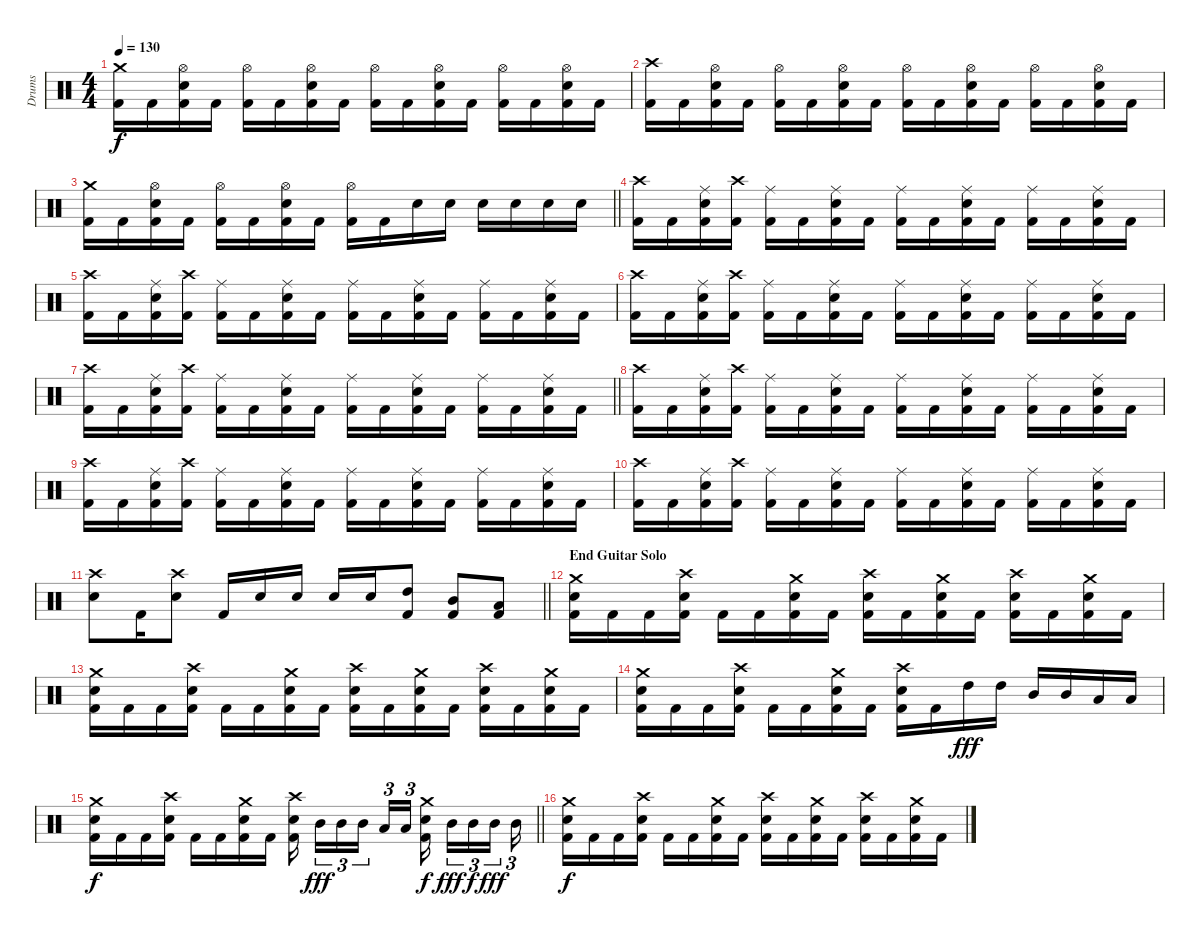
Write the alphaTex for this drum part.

\track ("Drums" "Drums") {instrument percussion}
\staff {score}
\articulation defaults
\ts (4 4)
\tempo 130
\clef neutral
\ks c
("Crash medium (hit)" "Kick (hit) 2").16{dy f} "Kick (hit) 2".16 ("Snare (hit) 2" "Hi-Hat (open)" "Kick (hit) 2").16 "Kick (hit) 2".16 ("Hi-Hat (open)" "Kick (hit) 2").16 "Kick (hit) 2".16 ("Snare (hit) 2" "Hi-Hat (open)" "Kick (hit) 2").16 "Kick (hit) 2".16 ("Hi-Hat (open)" "Kick (hit) 2").16 "Kick (hit) 2".16 ("Snare (hit) 2" "Hi-Hat (open)" "Kick (hit) 2").16 "Kick (hit) 2".16 ("Hi-Hat (open)" "Kick (hit) 2").16 "Kick (hit) 2".16 ("Snare (hit) 2" "Hi-Hat (open)" "Kick (hit) 2").16 "Kick (hit) 2".16 |
("Crash high (hit)" "Kick (hit) 2").16 "Kick (hit) 2".16 ("Snare (hit) 2" "Hi-Hat (open)" "Kick (hit) 2").16 "Kick (hit) 2".16 ("Hi-Hat (open)" "Kick (hit) 2").16 "Kick (hit) 2".16 ("Snare (hit) 2" "Hi-Hat (open)" "Kick (hit) 2").16 "Kick (hit) 2".16 ("Hi-Hat (open)" "Kick (hit) 2").16 "Kick (hit) 2".16 ("Snare (hit) 2" "Hi-Hat (open)" "Kick (hit) 2").16 "Kick (hit) 2".16 ("Hi-Hat (open)" "Kick (hit) 2").16 "Kick (hit) 2".16 ("Snare (hit) 2" "Hi-Hat (open)" "Kick (hit) 2").16 "Kick (hit) 2".16 |
\barLineRight lightlight
("Crash medium (hit)" "Kick (hit) 2").16 "Kick (hit) 2".16 ("Snare (hit) 2" "Hi-Hat (open)" "Kick (hit) 2").16 "Kick (hit) 2".16 ("Hi-Hat (open)" "Kick (hit) 2").16 "Kick (hit) 2".16 ("Snare (hit) 2" "Hi-Hat (open)" "Kick (hit) 2").16 "Kick (hit) 2".16 ("Hi-Hat (open)" "Kick (hit) 2").16 "Kick (hit) 2".16 "Snare (hit) 2".16 "Snare (hit) 2".16 "Snare (hit) 2".16 "Snare (hit) 2".16 "Snare (hit) 2".16 "Snare (hit) 2".16 |
("Crash high (hit)" "Kick (hit) 2").16 "Kick (hit) 2".16 ("Snare (hit) 2" "Ride (middle)" "Kick (hit) 2").16 ("Crash high (hit)" "Kick (hit) 2").16 ("Ride (middle)" "Kick (hit) 2").16 "Kick (hit) 2".16 ("Snare (hit) 2" "Ride (middle)" "Kick (hit) 2").16 "Kick (hit) 2".16 ("Ride (middle)" "Kick (hit) 2").16 "Kick (hit) 2".16 ("Snare (hit) 2" "Ride (middle)" "Kick (hit) 2").16 "Kick (hit) 2".16 ("Ride (middle)" "Kick (hit) 2").16 "Kick (hit) 2".16 ("Snare (hit) 2" "Ride (middle)" "Kick (hit) 2").16 "Kick (hit) 2".16 |
("Crash high (hit)" "Kick (hit) 2").16 "Kick (hit) 2".16 ("Snare (hit) 2" "Ride (middle)" "Kick (hit) 2").16 ("Crash high (hit)" "Kick (hit) 2").16 ("Ride (middle)" "Kick (hit) 2").16 "Kick (hit) 2".16 ("Snare (hit) 2" "Ride (middle)" "Kick (hit) 2").16 "Kick (hit) 2".16 ("Ride (middle)" "Kick (hit) 2").16 "Kick (hit) 2".16 ("Snare (hit) 2" "Ride (middle)" "Kick (hit) 2").16 "Kick (hit) 2".16 ("Ride (middle)" "Kick (hit) 2").16 "Kick (hit) 2".16 ("Snare (hit) 2" "Ride (middle)" "Kick (hit) 2").16 "Kick (hit) 2".16 |
("Crash high (hit)" "Kick (hit) 2").16 "Kick (hit) 2".16 ("Snare (hit) 2" "Ride (middle)" "Kick (hit) 2").16 ("Crash high (hit)" "Kick (hit) 2").16 ("Ride (middle)" "Kick (hit) 2").16 "Kick (hit) 2".16 ("Snare (hit) 2" "Ride (middle)" "Kick (hit) 2").16 "Kick (hit) 2".16 ("Ride (middle)" "Kick (hit) 2").16 "Kick (hit) 2".16 ("Snare (hit) 2" "Ride (middle)" "Kick (hit) 2").16 "Kick (hit) 2".16 ("Ride (middle)" "Kick (hit) 2").16 "Kick (hit) 2".16 ("Snare (hit) 2" "Ride (middle)" "Kick (hit) 2").16 "Kick (hit) 2".16 |
\barLineRight lightlight
("Crash high (hit)" "Kick (hit) 2").16 "Kick (hit) 2".16 ("Snare (hit) 2" "Ride (middle)" "Kick (hit) 2").16 ("Crash high (hit)" "Kick (hit) 2").16 ("Ride (middle)" "Kick (hit) 2").16 "Kick (hit) 2".16 ("Snare (hit) 2" "Ride (middle)" "Kick (hit) 2").16 "Kick (hit) 2".16 ("Ride (middle)" "Kick (hit) 2").16 "Kick (hit) 2".16 ("Snare (hit) 2" "Ride (middle)" "Kick (hit) 2").16 "Kick (hit) 2".16 ("Ride (middle)" "Kick (hit) 2").16 "Kick (hit) 2".16 ("Snare (hit) 2" "Ride (middle)" "Kick (hit) 2").16 "Kick (hit) 2".16 |
("Crash high (hit)" "Kick (hit) 2").16 "Kick (hit) 2".16 ("Snare (hit) 2" "Ride (middle)" "Kick (hit) 2").16 ("Crash high (hit)" "Kick (hit) 2").16 ("Ride (middle)" "Kick (hit) 2").16 "Kick (hit) 2".16 ("Snare (hit) 2" "Ride (middle)" "Kick (hit) 2").16 "Kick (hit) 2".16 ("Ride (middle)" "Kick (hit) 2").16 "Kick (hit) 2".16 ("Snare (hit) 2" "Ride (middle)" "Kick (hit) 2").16 "Kick (hit) 2".16 ("Ride (middle)" "Kick (hit) 2").16 "Kick (hit) 2".16 ("Snare (hit) 2" "Ride (middle)" "Kick (hit) 2").16 "Kick (hit) 2".16 |
("Crash high (hit)" "Kick (hit) 2").16 "Kick (hit) 2".16 ("Snare (hit) 2" "Ride (middle)" "Kick (hit) 2").16 ("Crash high (hit)" "Kick (hit) 2").16 ("Ride (middle)" "Kick (hit) 2").16 "Kick (hit) 2".16 ("Snare (hit) 2" "Ride (middle)" "Kick (hit) 2").16 "Kick (hit) 2".16 ("Ride (middle)" "Kick (hit) 2").16 "Kick (hit) 2".16 ("Snare (hit) 2" "Ride (middle)" "Kick (hit) 2").16 "Kick (hit) 2".16 ("Ride (middle)" "Kick (hit) 2").16 "Kick (hit) 2".16 ("Snare (hit) 2" "Ride (middle)" "Kick (hit) 2").16 "Kick (hit) 2".16 |
("Crash high (hit)" "Kick (hit) 2").16 "Kick (hit) 2".16 ("Snare (hit) 2" "Ride (middle)" "Kick (hit) 2").16 ("Crash high (hit)" "Kick (hit) 2").16 ("Ride (middle)" "Kick (hit) 2").16 "Kick (hit) 2".16 ("Snare (hit) 2" "Ride (middle)" "Kick (hit) 2").16 "Kick (hit) 2".16 ("Ride (middle)" "Kick (hit) 2").16 "Kick (hit) 2".16 ("Snare (hit) 2" "Ride (middle)" "Kick (hit) 2").16 "Kick (hit) 2".16 ("Ride (middle)" "Kick (hit) 2").16 "Kick (hit) 2".16 ("Snare (hit) 2" "Ride (middle)" "Kick (hit) 2").16 "Kick (hit) 2".16 |
\barLineRight lightlight
("Crash high (hit)" "Snare (hit) 2").8 "Kick (hit) 2".16 ("Crash high (hit)" "Snare (hit) 2").8 "Kick (hit) 2".16 "Snare (hit) 2".16 "Snare (hit) 2".16 "Snare (hit) 2".16 "Snare (hit) 2".16 ("High Tom (hit)" "Kick (hit) 2").8 ("Mid Tom (hit)" "Kick (hit) 2").8 ("Low Tom (hit)" "Kick (hit) 2").8 |
\section ("" "End Guitar Solo")
("Snare (hit) 2" "Crash medium (hit)" "Kick (hit) 2").16 "Kick (hit) 2".16 "Kick (hit) 2".16 ("Snare (hit) 2" "Crash high (hit)" "Kick (hit) 2").16 "Kick (hit) 2".16 "Kick (hit) 2".16 ("Crash medium (hit)" "Snare (hit) 2" "Kick (hit) 2").16 "Kick (hit) 2".16 ("Crash high (hit)" "Snare (hit) 2" "Kick (hit) 2").16 "Kick (hit) 2".16 ("Crash medium (hit)" "Snare (hit) 2" "Kick (hit) 2").16 "Kick (hit) 2".16 ("Crash high (hit)" "Snare (hit) 2" "Kick (hit) 2").16 "Kick (hit) 2".16 ("Crash medium (hit)" "Snare (hit) 2" "Kick (hit) 2").16 "Kick (hit) 2".16 |
("Snare (hit) 2" "Crash medium (hit)" "Kick (hit) 2").16 "Kick (hit) 2".16 "Kick (hit) 2".16 ("Snare (hit) 2" "Crash high (hit)" "Kick (hit) 2").16 "Kick (hit) 2".16 "Kick (hit) 2".16 ("Crash medium (hit)" "Snare (hit) 2" "Kick (hit) 2").16 "Kick (hit) 2".16 ("Crash high (hit)" "Snare (hit) 2" "Kick (hit) 2").16 "Kick (hit) 2".16 ("Crash medium (hit)" "Snare (hit) 2" "Kick (hit) 2").16 "Kick (hit) 2".16 ("Crash high (hit)" "Snare (hit) 2" "Kick (hit) 2").16 "Kick (hit) 2".16 ("Crash medium (hit)" "Snare (hit) 2" "Kick (hit) 2").16 "Kick (hit) 2".16 |
("Snare (hit) 2" "Crash medium (hit)" "Kick (hit) 2").16 "Kick (hit) 2".16 "Kick (hit) 2".16 ("Snare (hit) 2" "Crash high (hit)" "Kick (hit) 2").16 "Kick (hit) 2".16 "Kick (hit) 2".16 ("Crash medium (hit)" "Snare (hit) 2" "Kick (hit) 2").16 "Kick (hit) 2".16 ("Crash high (hit)" "Snare (hit) 2" "Kick (hit) 2").16 "Kick (hit) 2".16 "High Tom (hit)".16{dy fff} "High Tom (hit)".16 "Mid Tom (hit)".16 "Mid Tom (hit)".16 "Low Tom (hit)".16 "Low Tom (hit)".16 |
\barLineRight lightlight
("Snare (hit) 2" "Crash medium (hit)" "Kick (hit) 2").16{dy f} "Kick (hit) 2".16 "Kick (hit) 2".16 ("Snare (hit) 2" "Crash high (hit)" "Kick (hit) 2").16 "Kick (hit) 2".16 "Kick (hit) 2".16 ("Crash medium (hit)" "Snare (hit) 2" "Kick (hit) 2").16 "Kick (hit) 2".16 ("Crash high (hit)" "Snare (hit) 2" "Kick (hit) 2").16{beam splitsecondary} "Mid Tom (hit)".16{tu (3 2) dy fff} "Mid Tom (hit)".16{tu (3 2)} "Mid Tom (hit)".16{tu (3 2) beam splitsecondary} "Low Tom (hit)".16{tu (3 2)} "Low Tom (hit)".16{tu (3 2)} ("Crash medium (hit)" "Snare (hit) 2" "Kick (hit) 2").16{dy f beam splitsecondary} "Mid Tom (hit)".16{tu (3 2) dy fff} "Mid Tom (hit)".16{tu (3 2) dy f} "Mid Tom (hit)".16{tu (3 2) dy fff beam splitsecondary} "Mid Tom (hit)".16{tu (3 2)} |
("Snare (hit) 2" "Crash medium (hit)" "Kick (hit) 2").16{dy f} "Kick (hit) 2".16 "Kick (hit) 2".16 ("Snare (hit) 2" "Crash high (hit)" "Kick (hit) 2").16 "Kick (hit) 2".16 "Kick (hit) 2".16 ("Crash medium (hit)" "Snare (hit) 2" "Kick (hit) 2").16 "Kick (hit) 2".16 ("Crash high (hit)" "Snare (hit) 2" "Kick (hit) 2").16 "Kick (hit) 2".16 ("Crash medium (hit)" "Snare (hit) 2" "Kick (hit) 2").16 "Kick (hit) 2".16 ("Crash high (hit)" "Snare (hit) 2" "Kick (hit) 2").16 "Kick (hit) 2".16 ("Crash medium (hit)" "Snare (hit) 2" "Kick (hit) 2").16 "Kick (hit) 2".16
